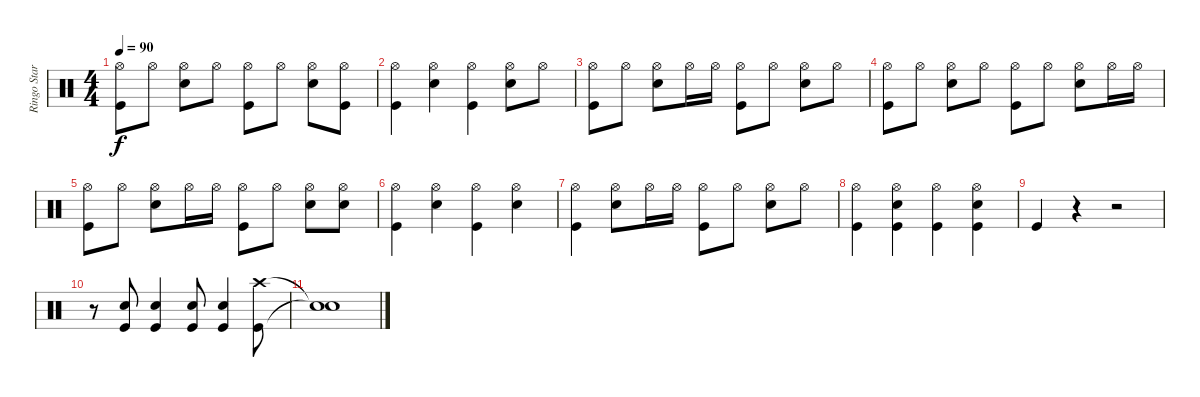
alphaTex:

\track ("Ringo Starr" "Ringo Star") {instrument percussion}
\staff {score}
\articulation defaults
\ts (4 4)
\tempo 90
\clef neutral
\ks c
("Hi-Hat (open)" "Kick (hit)").8{dy f} "Hi-Hat (open)".8 ("Hi-Hat (open)" "Snare (hit) 2").8 "Hi-Hat (open)".8 ("Hi-Hat (open)" "Kick (hit)").8 "Hi-Hat (open)".8 ("Hi-Hat (open)" "Snare (hit) 2").8 ("Hi-Hat (open)" "Kick (hit)").8 |
("Hi-Hat (open)" "Kick (hit)").4 ("Hi-Hat (open)" "Snare (hit) 2").4 ("Hi-Hat (open)" "Kick (hit)").4 ("Hi-Hat (open)" "Snare (hit) 2").8 "Hi-Hat (open)".8 |
("Hi-Hat (open)" "Kick (hit)").8 "Hi-Hat (open)".8 ("Hi-Hat (open)" "Snare (hit) 2").8 "Hi-Hat (open)".16 "Hi-Hat (open)".16 ("Hi-Hat (open)" "Kick (hit)").8 "Hi-Hat (open)".8 ("Hi-Hat (open)" "Snare (hit) 2").8 "Hi-Hat (open)".8 |
("Hi-Hat (open)" "Kick (hit)").8 "Hi-Hat (open)".8 ("Hi-Hat (open)" "Snare (hit) 2").8 "Hi-Hat (open)".8 ("Hi-Hat (open)" "Kick (hit)").8 "Hi-Hat (open)".8 ("Hi-Hat (open)" "Snare (hit) 2").8 "Hi-Hat (open)".16 "Hi-Hat (open)".16 |
("Hi-Hat (open)" "Kick (hit)").8 "Hi-Hat (open)".8 ("Hi-Hat (open)" "Snare (hit) 2").8 "Hi-Hat (open)".16 "Hi-Hat (open)".16 ("Hi-Hat (open)" "Kick (hit)").8 "Hi-Hat (open)".8 ("Hi-Hat (open)" "Snare (hit) 2").8 ("Hi-Hat (open)" "Snare (hit) 2").8 |
("Hi-Hat (open)" "Kick (hit)").4 ("Hi-Hat (open)" "Snare (hit) 2").4 ("Hi-Hat (open)" "Kick (hit)").4 ("Hi-Hat (open)" "Snare (hit) 2").4 |
("Hi-Hat (open)" "Kick (hit)").4 ("Hi-Hat (open)" "Snare (hit) 2").8 "Hi-Hat (open)".16 "Hi-Hat (open)".16 ("Hi-Hat (open)" "Kick (hit)").8 "Hi-Hat (open)".8 ("Hi-Hat (open)" "Snare (hit) 2").8 "Hi-Hat (open)".8 |
("Hi-Hat (open)" "Kick (hit)").4 ("Hi-Hat (open)" "Snare (hit) 2" "Kick (hit)").4 ("Hi-Hat (open)" "Kick (hit)").4 ("Hi-Hat (open)" "Snare (hit) 2" "Kick (hit)").4 |
"Kick (hit)".4 r.4 r.2 |
r.8 ("Snare (hit) 2" "Kick (hit)").8 ("Snare (hit) 2" "Kick (hit)").4 ("Snare (hit) 2" "Kick (hit)").8 ("Snare (hit) 2" "Kick (hit)").4 ("Crash high (hit)" "Kick (hit)").8 |
("Snare (hit)"{t} "Snare (hit)"{t}).1
